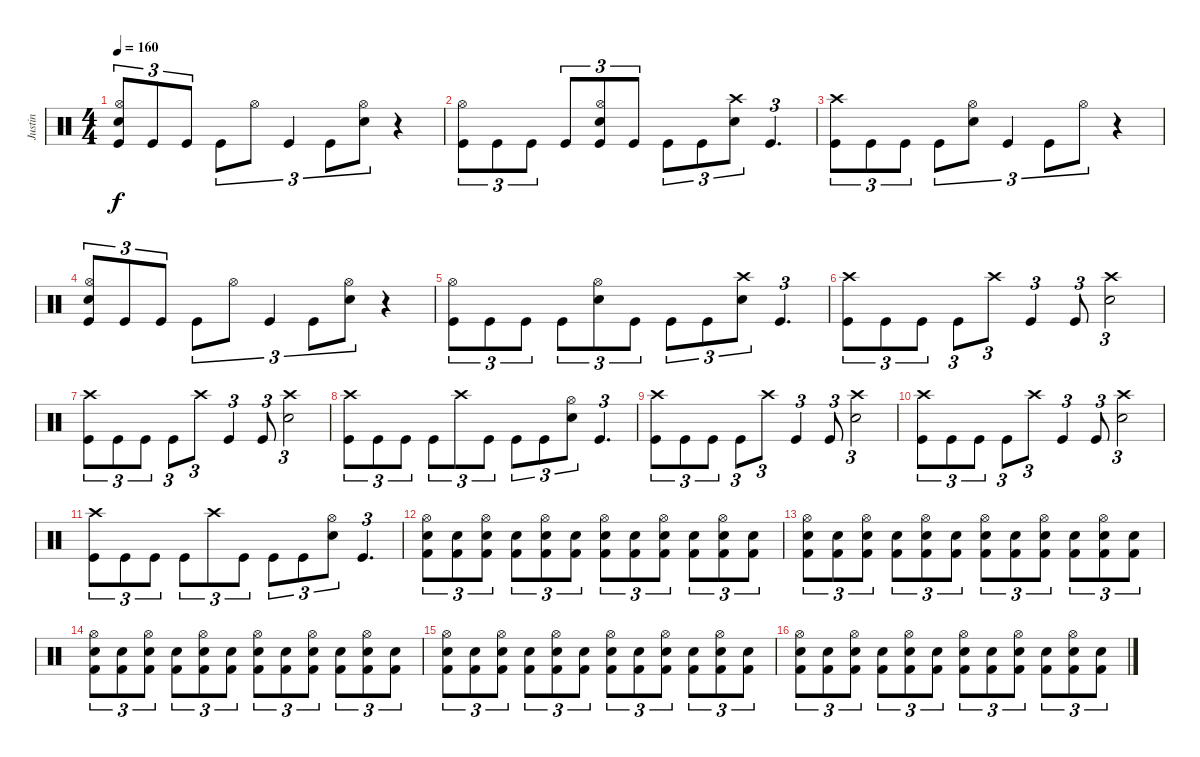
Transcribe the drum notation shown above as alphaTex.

\track ("Justin" "Justin") {instrument percussion}
\staff {score}
\articulation defaults
\ts (4 4)
\tempo 160
\clef neutral
\ks c
("Electric Snare (hit)" "Hi-Hat (open)" "Kick (hit)").8{tu (3 2) dy f} "Kick (hit)".8{tu (3 2)} "Kick (hit)".8{tu (3 2)} "Kick (hit)".8{tu (3 2)} "Hi-Hat (open)".8{tu (3 2)} "Kick (hit)".4{tu (3 2)} "Kick (hit)".8{tu (3 2)} ("Electric Snare (hit)" "Hi-Hat (open)").8{tu (3 2)} r.4 |
("Hi-Hat (open)" "Kick (hit)").8{tu (3 2)} "Kick (hit)".8{tu (3 2)} "Kick (hit)".8{tu (3 2)} "Kick (hit)".8{tu (3 2)} ("Kick (hit)" "Hi-Hat (open)" "Electric Snare (hit)").8{tu (3 2)} "Kick (hit)".8{tu (3 2)} "Kick (hit)".8{tu (3 2)} "Kick (hit)".8{tu (3 2)} ("Crash high (hit)" "Electric Snare (hit)").8{tu (3 2)} "Kick (hit)".4{d tu (3 2)} |
("Crash high (hit)" "Kick (hit)").8{tu (3 2)} "Kick (hit)".8{tu (3 2)} "Kick (hit)".8{tu (3 2)} "Kick (hit)".8{tu (3 2)} ("Electric Snare (hit)" "Hi-Hat (open)").8{tu (3 2)} "Kick (hit)".4{tu (3 2)} "Kick (hit)".8{tu (3 2)} "Hi-Hat (open)".8{tu (3 2)} r.4 |
("Electric Snare (hit)" "Hi-Hat (open)" "Kick (hit)").8{tu (3 2)} "Kick (hit)".8{tu (3 2)} "Kick (hit)".8{tu (3 2)} "Kick (hit)".8{tu (3 2)} "Hi-Hat (open)".8{tu (3 2)} "Kick (hit)".4{tu (3 2)} "Kick (hit)".8{tu (3 2)} ("Electric Snare (hit)" "Hi-Hat (open)").8{tu (3 2)} r.4 |
("Hi-Hat (open)" "Kick (hit)").8{tu (3 2)} "Kick (hit)".8{tu (3 2)} "Kick (hit)".8{tu (3 2)} "Kick (hit)".8{tu (3 2)} ("Hi-Hat (open)" "Electric Snare (hit)").8{tu (3 2)} "Kick (hit)".8{tu (3 2)} "Kick (hit)".8{tu (3 2)} "Kick (hit)".8{tu (3 2)} ("Crash high (hit)" "Electric Snare (hit)").8{tu (3 2)} "Kick (hit)".4{d tu (3 2)} |
("Crash high (hit)" "Kick (hit)").8{tu (3 2)} "Kick (hit)".8{tu (3 2)} "Kick (hit)".8{tu (3 2)} "Kick (hit)".8{tu (3 2)} "Crash high (hit)".8{tu (3 2)} "Kick (hit)".4{tu (3 2)} "Kick (hit)".8{tu (3 2)} ("Crash high (hit)" "Electric Snare (hit)").2{tu (3 2)} |
("Crash high (hit)" "Kick (hit)").8{tu (3 2)} "Kick (hit)".8{tu (3 2)} "Kick (hit)".8{tu (3 2)} "Kick (hit)".8{tu (3 2)} "Crash high (hit)".8{tu (3 2)} "Kick (hit)".4{tu (3 2)} "Kick (hit)".8{tu (3 2)} ("Crash high (hit)" "Electric Snare (hit)").2{tu (3 2)} |
("Crash high (hit)" "Kick (hit)").8{tu (3 2)} "Kick (hit)".8{tu (3 2)} "Kick (hit)".8{tu (3 2)} "Kick (hit)".8{tu (3 2)} "Crash high (hit)".8{tu (3 2)} "Kick (hit)".8{tu (3 2)} "Kick (hit)".8{tu (3 2)} "Kick (hit)".8{tu (3 2)} ("Hi-Hat (open)" "Electric Snare (hit)").8{tu (3 2)} "Kick (hit)".4{d tu (3 2)} |
("Crash high (hit)" "Kick (hit)").8{tu (3 2)} "Kick (hit)".8{tu (3 2)} "Kick (hit)".8{tu (3 2)} "Kick (hit)".8{tu (3 2)} "Crash high (hit)".8{tu (3 2)} "Kick (hit)".4{tu (3 2)} "Kick (hit)".8{tu (3 2)} ("Crash high (hit)" "Electric Snare (hit)").2{tu (3 2)} |
("Crash high (hit)" "Kick (hit)").8{tu (3 2)} "Kick (hit)".8{tu (3 2)} "Kick (hit)".8{tu (3 2)} "Kick (hit)".8{tu (3 2)} "Crash high (hit)".8{tu (3 2)} "Kick (hit)".4{tu (3 2)} "Kick (hit)".8{tu (3 2)} ("Crash high (hit)" "Electric Snare (hit)").2{tu (3 2)} |
("Crash high (hit)" "Kick (hit)").8{tu (3 2)} "Kick (hit)".8{tu (3 2)} "Kick (hit)".8{tu (3 2)} "Kick (hit)".8{tu (3 2)} "Crash high (hit)".8{tu (3 2)} "Kick (hit)".8{tu (3 2)} "Kick (hit)".8{tu (3 2)} "Kick (hit)".8{tu (3 2)} ("Hi-Hat (open)" "Electric Snare (hit)").8{tu (3 2)} "Kick (hit)".4{d tu (3 2)} |
("Hi-Hat (open)" "Snare (hit) 2" "Kick (hit) 2").8{tu (3 2)} ("Snare (hit) 2" "Kick (hit) 2").8{tu (3 2)} ("Hi-Hat (open)" "Snare (hit) 2" "Kick (hit) 2").8{tu (3 2)} ("Snare (hit) 2" "Kick (hit) 2").8{tu (3 2)} ("Hi-Hat (open)" "Snare (hit) 2" "Kick (hit) 2").8{tu (3 2)} ("Snare (hit) 2" "Kick (hit) 2").8{tu (3 2)} ("Hi-Hat (open)" "Snare (hit) 2" "Kick (hit) 2").8{tu (3 2)} ("Snare (hit) 2" "Kick (hit) 2").8{tu (3 2)} ("Hi-Hat (open)" "Snare (hit) 2" "Kick (hit) 2").8{tu (3 2)} ("Snare (hit) 2" "Kick (hit) 2").8{tu (3 2)} ("Hi-Hat (open)" "Snare (hit) 2" "Kick (hit) 2").8{tu (3 2)} ("Snare (hit) 2" "Kick (hit) 2").8{tu (3 2)} |
("Hi-Hat (open)" "Snare (hit) 2" "Kick (hit) 2").8{tu (3 2)} ("Snare (hit) 2" "Kick (hit) 2").8{tu (3 2)} ("Hi-Hat (open)" "Snare (hit) 2" "Kick (hit) 2").8{tu (3 2)} ("Snare (hit) 2" "Kick (hit) 2").8{tu (3 2)} ("Hi-Hat (open)" "Snare (hit) 2" "Kick (hit) 2").8{tu (3 2)} ("Snare (hit) 2" "Kick (hit) 2").8{tu (3 2)} ("Hi-Hat (open)" "Snare (hit) 2" "Kick (hit) 2").8{tu (3 2)} ("Snare (hit) 2" "Kick (hit) 2").8{tu (3 2)} ("Hi-Hat (open)" "Snare (hit) 2" "Kick (hit) 2").8{tu (3 2)} ("Snare (hit) 2" "Kick (hit) 2").8{tu (3 2)} ("Hi-Hat (open)" "Snare (hit) 2" "Kick (hit) 2").8{tu (3 2)} ("Snare (hit) 2" "Kick (hit) 2").8{tu (3 2)} |
("Hi-Hat (open)" "Snare (hit) 2" "Kick (hit) 2").8{tu (3 2)} ("Snare (hit) 2" "Kick (hit) 2").8{tu (3 2)} ("Hi-Hat (open)" "Snare (hit) 2" "Kick (hit) 2").8{tu (3 2)} ("Snare (hit) 2" "Kick (hit) 2").8{tu (3 2)} ("Hi-Hat (open)" "Snare (hit) 2" "Kick (hit) 2").8{tu (3 2)} ("Snare (hit) 2" "Kick (hit) 2").8{tu (3 2)} ("Hi-Hat (open)" "Snare (hit) 2" "Kick (hit) 2").8{tu (3 2)} ("Snare (hit) 2" "Kick (hit) 2").8{tu (3 2)} ("Hi-Hat (open)" "Snare (hit) 2" "Kick (hit) 2").8{tu (3 2)} ("Snare (hit) 2" "Kick (hit) 2").8{tu (3 2)} ("Hi-Hat (open)" "Snare (hit) 2" "Kick (hit) 2").8{tu (3 2)} ("Snare (hit) 2" "Kick (hit) 2").8{tu (3 2)} |
("Hi-Hat (open)" "Snare (hit) 2" "Kick (hit) 2").8{tu (3 2)} ("Snare (hit) 2" "Kick (hit) 2").8{tu (3 2)} ("Hi-Hat (open)" "Snare (hit) 2" "Kick (hit) 2").8{tu (3 2)} ("Snare (hit) 2" "Kick (hit) 2").8{tu (3 2)} ("Hi-Hat (open)" "Snare (hit) 2" "Kick (hit) 2").8{tu (3 2)} ("Snare (hit) 2" "Kick (hit) 2").8{tu (3 2)} ("Hi-Hat (open)" "Snare (hit) 2" "Kick (hit) 2").8{tu (3 2)} ("Snare (hit) 2" "Kick (hit) 2").8{tu (3 2)} ("Hi-Hat (open)" "Snare (hit) 2" "Kick (hit) 2").8{tu (3 2)} ("Snare (hit) 2" "Kick (hit) 2").8{tu (3 2)} ("Hi-Hat (open)" "Snare (hit) 2" "Kick (hit) 2").8{tu (3 2)} ("Snare (hit) 2" "Kick (hit) 2").8{tu (3 2)} |
("Hi-Hat (open)" "Snare (hit) 2" "Kick (hit) 2").8{tu (3 2)} ("Snare (hit) 2" "Kick (hit) 2").8{tu (3 2)} ("Hi-Hat (open)" "Snare (hit) 2" "Kick (hit) 2").8{tu (3 2)} ("Snare (hit) 2" "Kick (hit) 2").8{tu (3 2)} ("Hi-Hat (open)" "Snare (hit) 2" "Kick (hit) 2").8{tu (3 2)} ("Snare (hit) 2" "Kick (hit) 2").8{tu (3 2)} ("Hi-Hat (open)" "Snare (hit) 2" "Kick (hit) 2").8{tu (3 2)} ("Snare (hit) 2" "Kick (hit) 2").8{tu (3 2)} ("Hi-Hat (open)" "Snare (hit) 2" "Kick (hit) 2").8{tu (3 2)} ("Snare (hit) 2" "Kick (hit) 2").8{tu (3 2)} ("Hi-Hat (open)" "Snare (hit) 2" "Kick (hit) 2").8{tu (3 2)} ("Snare (hit) 2" "Kick (hit) 2").8{tu (3 2)}
